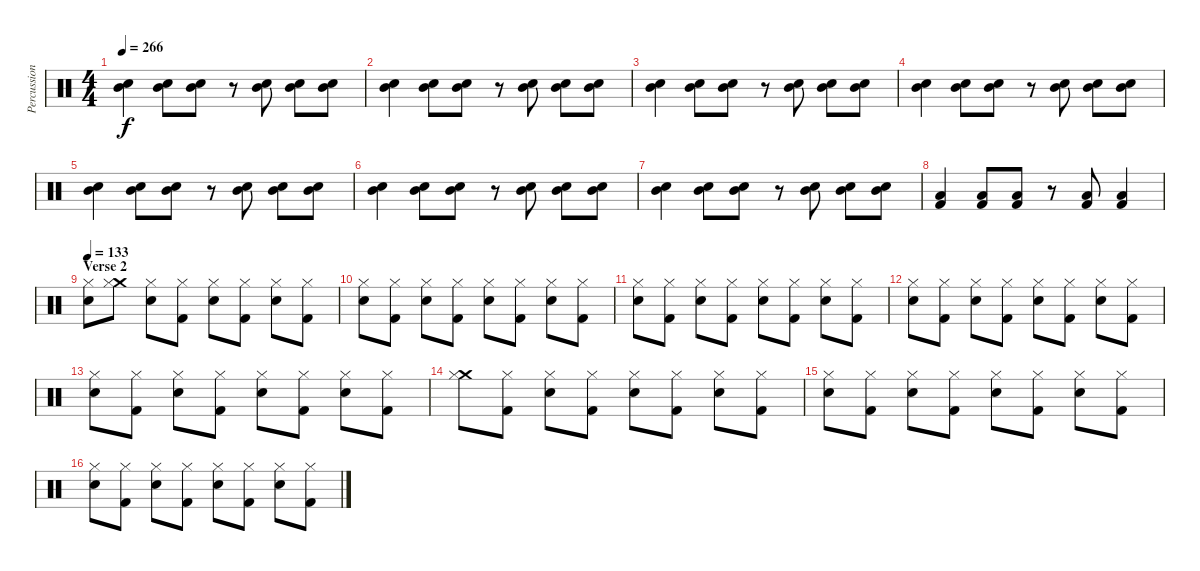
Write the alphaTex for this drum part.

\track ("Percussion" "Percussion") {instrument percussion}
\staff {score}
\articulation defaults
\ts (4 4)
\tempo 266
\clef neutral
\ks c
("Mid Tom (hit)" "Snare (hit) 2").4{dy f} ("Mid Tom (hit)" "Snare (hit) 2").8 ("Mid Tom (hit)" "Snare (hit) 2").8 r.8 ("Mid Tom (hit)" "Snare (hit) 2").8 ("Mid Tom (hit)" "Snare (hit) 2").8 ("Mid Tom (hit)" "Snare (hit) 2").8 |
("Mid Tom (hit)" "Snare (hit) 2").4 ("Mid Tom (hit)" "Snare (hit) 2").8 ("Mid Tom (hit)" "Snare (hit) 2").8 r.8 ("Mid Tom (hit)" "Snare (hit) 2").8 ("Mid Tom (hit)" "Snare (hit) 2").8 ("Mid Tom (hit)" "Snare (hit) 2").8 |
("Mid Tom (hit)" "Snare (hit) 2").4 ("Mid Tom (hit)" "Snare (hit) 2").8 ("Mid Tom (hit)" "Snare (hit) 2").8 r.8 ("Mid Tom (hit)" "Snare (hit) 2").8 ("Mid Tom (hit)" "Snare (hit) 2").8 ("Mid Tom (hit)" "Snare (hit) 2").8 |
("Mid Tom (hit)" "Snare (hit) 2").4 ("Mid Tom (hit)" "Snare (hit) 2").8 ("Mid Tom (hit)" "Snare (hit) 2").8 r.8 ("Mid Tom (hit)" "Snare (hit) 2").8 ("Mid Tom (hit)" "Snare (hit) 2").8 ("Mid Tom (hit)" "Snare (hit) 2").8 |
("Mid Tom (hit)" "Snare (hit) 2").4 ("Mid Tom (hit)" "Snare (hit) 2").8 ("Mid Tom (hit)" "Snare (hit) 2").8 r.8 ("Mid Tom (hit)" "Snare (hit) 2").8 ("Mid Tom (hit)" "Snare (hit) 2").8 ("Mid Tom (hit)" "Snare (hit) 2").8 |
("Mid Tom (hit)" "Snare (hit) 2").4 ("Mid Tom (hit)" "Snare (hit) 2").8 ("Mid Tom (hit)" "Snare (hit) 2").8 r.8 ("Mid Tom (hit)" "Snare (hit) 2").8 ("Mid Tom (hit)" "Snare (hit) 2").8 ("Mid Tom (hit)" "Snare (hit) 2").8 |
("Mid Tom (hit)" "Snare (hit) 2").4 ("Mid Tom (hit)" "Snare (hit) 2").8 ("Mid Tom (hit)" "Snare (hit) 2").8 r.8 ("Mid Tom (hit)" "Snare (hit) 2").8 ("Mid Tom (hit)" "Snare (hit) 2").8 ("Mid Tom (hit)" "Snare (hit) 2").8 |
("Low Tom (hit)" "Kick (hit) 2").4 ("Low Tom (hit)" "Kick (hit) 2").8 ("Low Tom (hit)" "Kick (hit) 2").8 r.8 ("Low Tom (hit)" "Kick (hit) 2").8 ("Low Tom (hit)" "Kick (hit) 2").4 |
\section ("" "Verse 2")
\tempo 133
("Snare (hit) 2" "Hi-Hat (closed)").8 ("Crash medium (hit)" "Hi-Hat (closed)").8 ("Snare (hit) 2" "Hi-Hat (closed)").8 ("Kick (hit) 2" "Hi-Hat (closed)").8 ("Snare (hit) 2" "Hi-Hat (closed)").8 ("Kick (hit) 2" "Hi-Hat (closed)").8 ("Snare (hit) 2" "Hi-Hat (closed)").8 ("Kick (hit) 2" "Hi-Hat (closed)").8 |
("Snare (hit) 2" "Hi-Hat (closed)").8 ("Kick (hit) 2" "Hi-Hat (closed)").8 ("Snare (hit) 2" "Hi-Hat (closed)").8 ("Kick (hit) 2" "Hi-Hat (closed)").8 ("Snare (hit) 2" "Hi-Hat (closed)").8 ("Kick (hit) 2" "Hi-Hat (closed)").8 ("Snare (hit) 2" "Hi-Hat (closed)").8 ("Kick (hit) 2" "Hi-Hat (closed)").8 |
("Snare (hit) 2" "Hi-Hat (closed)").8 ("Kick (hit) 2" "Hi-Hat (closed)").8 ("Snare (hit) 2" "Hi-Hat (closed)").8 ("Kick (hit) 2" "Hi-Hat (closed)").8 ("Snare (hit) 2" "Hi-Hat (closed)").8 ("Kick (hit) 2" "Hi-Hat (closed)").8 ("Snare (hit) 2" "Hi-Hat (closed)").8 ("Kick (hit) 2" "Hi-Hat (closed)").8 |
("Snare (hit) 2" "Hi-Hat (closed)").8 ("Kick (hit) 2" "Hi-Hat (closed)").8 ("Snare (hit) 2" "Hi-Hat (closed)").8 ("Kick (hit) 2" "Hi-Hat (closed)").8 ("Snare (hit) 2" "Hi-Hat (closed)").8 ("Kick (hit) 2" "Hi-Hat (closed)").8 ("Snare (hit) 2" "Hi-Hat (closed)").8 ("Kick (hit) 2" "Hi-Hat (closed)").8 |
("Snare (hit) 2" "Hi-Hat (closed)").8 ("Kick (hit) 2" "Hi-Hat (closed)").8 ("Snare (hit) 2" "Hi-Hat (closed)").8 ("Kick (hit) 2" "Hi-Hat (closed)").8 ("Snare (hit) 2" "Hi-Hat (closed)").8 ("Kick (hit) 2" "Hi-Hat (closed)").8 ("Snare (hit) 2" "Hi-Hat (closed)").8 ("Kick (hit) 2" "Hi-Hat (closed)").8 |
("Crash medium (hit)" "Hi-Hat (closed)").8 ("Kick (hit) 2" "Hi-Hat (closed)").8 ("Snare (hit) 2" "Hi-Hat (closed)").8 ("Kick (hit) 2" "Hi-Hat (closed)").8 ("Snare (hit) 2" "Hi-Hat (closed)").8 ("Kick (hit) 2" "Hi-Hat (closed)").8 ("Snare (hit) 2" "Hi-Hat (closed)").8 ("Kick (hit) 2" "Hi-Hat (closed)").8 |
("Snare (hit) 2" "Hi-Hat (closed)").8 ("Kick (hit) 2" "Hi-Hat (closed)").8 ("Snare (hit) 2" "Hi-Hat (closed)").8 ("Kick (hit) 2" "Hi-Hat (closed)").8 ("Snare (hit) 2" "Hi-Hat (closed)").8 ("Kick (hit) 2" "Hi-Hat (closed)").8 ("Snare (hit) 2" "Hi-Hat (closed)").8 ("Kick (hit) 2" "Hi-Hat (closed)").8 |
("Snare (hit) 2" "Hi-Hat (closed)").8 ("Kick (hit) 2" "Hi-Hat (closed)").8 ("Snare (hit) 2" "Hi-Hat (closed)").8 ("Kick (hit) 2" "Hi-Hat (closed)").8 ("Snare (hit) 2" "Hi-Hat (closed)").8 ("Kick (hit) 2" "Hi-Hat (closed)").8 ("Snare (hit) 2" "Hi-Hat (closed)").8 ("Kick (hit) 2" "Hi-Hat (closed)").8
